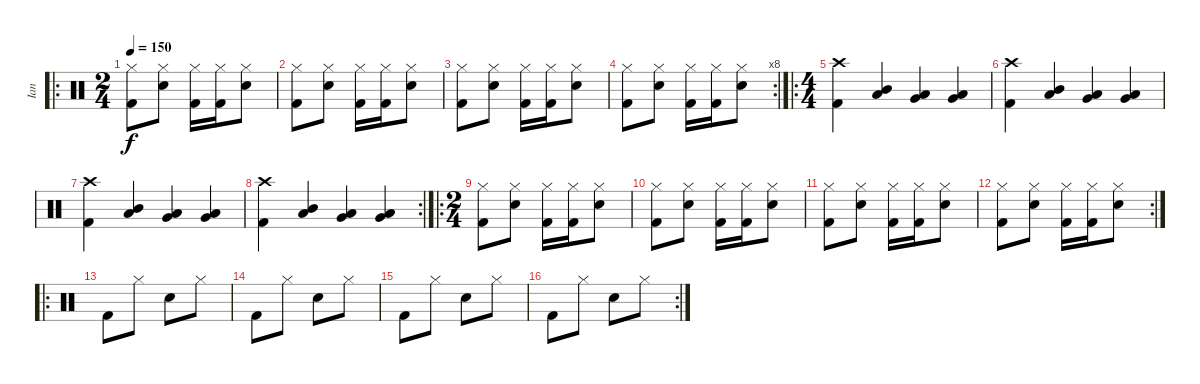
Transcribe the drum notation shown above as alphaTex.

\track ("Ian" "Ian") {instrument percussion}
\staff {score}
\articulation defaults
\ro
\ts (2 4)
\tempo 150
\clef neutral
\ks c
("Hi-Hat (closed)" "Kick (hit) 2").8{dy f} ("Hi-Hat (closed)" "Snare (hit) 2").8 ("Hi-Hat (closed)" "Kick (hit) 2").16 ("Hi-Hat (closed)" "Kick (hit) 2").16 ("Hi-Hat (closed)" "Snare (hit) 2").8 |
("Hi-Hat (closed)" "Kick (hit) 2").8 ("Hi-Hat (closed)" "Snare (hit) 2").8 ("Hi-Hat (closed)" "Kick (hit) 2").16 ("Hi-Hat (closed)" "Kick (hit) 2").16 ("Hi-Hat (closed)" "Snare (hit) 2").8 |
("Hi-Hat (closed)" "Kick (hit) 2").8 ("Hi-Hat (closed)" "Snare (hit) 2").8 ("Hi-Hat (closed)" "Kick (hit) 2").16 ("Hi-Hat (closed)" "Kick (hit) 2").16 ("Hi-Hat (closed)" "Snare (hit) 2").8 |
\rc 8
("Kick (hit) 2" "Hi-Hat (closed)").8 ("Snare (hit) 2" "Hi-Hat (closed)").8 ("Kick (hit) 2" "Hi-Hat (closed)").16 ("Kick (hit) 2" "Hi-Hat (closed)").16 ("Snare (hit) 2" "Hi-Hat (closed)").8 |
\ro
\ts (4 4)
("Crash high (hit)" "Kick (hit) 2").4 ("Mid Tom (hit)" "Low Tom (hit)").4 ("Low Tom (hit)" "Very Low Tom (hit)").4 ("Very Low Tom (hit)" "Low Floor Tom (hit)").4 |
("Crash high (hit)" "Kick (hit) 2").4 ("Mid Tom (hit)" "Low Tom (hit)").4 ("Low Tom (hit)" "Very Low Tom (hit)").4 ("Very Low Tom (hit)" "Low Floor Tom (hit)").4 |
("Crash high (hit)" "Kick (hit) 2").4 ("Mid Tom (hit)" "Low Tom (hit)").4 ("Low Tom (hit)" "Very Low Tom (hit)").4 ("Very Low Tom (hit)" "Low Floor Tom (hit)").4 |
\rc 2
("Crash high (hit)" "Kick (hit) 2").4 ("Mid Tom (hit)" "Low Tom (hit)").4 ("Low Tom (hit)" "Very Low Tom (hit)").4 ("Very Low Tom (hit)" "Low Floor Tom (hit)").4 |
\ro
\ts (2 4)
("Hi-Hat (closed)" "Kick (hit) 2").8 ("Hi-Hat (closed)" "Snare (hit) 2").8 ("Hi-Hat (closed)" "Kick (hit) 2").16 ("Hi-Hat (closed)" "Kick (hit) 2").16 ("Hi-Hat (closed)" "Snare (hit) 2").8 |
("Hi-Hat (closed)" "Kick (hit) 2").8 ("Hi-Hat (closed)" "Snare (hit) 2").8 ("Hi-Hat (closed)" "Kick (hit) 2").16 ("Hi-Hat (closed)" "Kick (hit) 2").16 ("Hi-Hat (closed)" "Snare (hit) 2").8 |
("Hi-Hat (closed)" "Kick (hit) 2").8 ("Hi-Hat (closed)" "Snare (hit) 2").8 ("Hi-Hat (closed)" "Kick (hit) 2").16 ("Hi-Hat (closed)" "Kick (hit) 2").16 ("Hi-Hat (closed)" "Snare (hit) 2").8 |
\rc 2
("Hi-Hat (closed)" "Kick (hit) 2").8 ("Hi-Hat (closed)" "Snare (hit) 2").8 ("Hi-Hat (closed)" "Kick (hit) 2").16 ("Hi-Hat (closed)" "Kick (hit) 2").16 ("Hi-Hat (closed)" "Snare (hit) 2").8 |
\ro "Kick (hit) 2".8 "Hi-Hat (closed)".8 "Snare (hit) 2".8 "Hi-Hat (closed)".8
|
"Kick (hit) 2".8 "Hi-Hat (closed)".8 "Snare (hit) 2".8 "Hi-Hat (closed)".8 |
"Kick (hit) 2".8 "Hi-Hat (closed)".8 "Snare (hit) 2".8 "Hi-Hat (closed)".8 |
\rc 2 "Kick (hit) 2".8 "Hi-Hat (closed)".8 "Snare (hit) 2".8 "Hi-Hat (closed)".8
